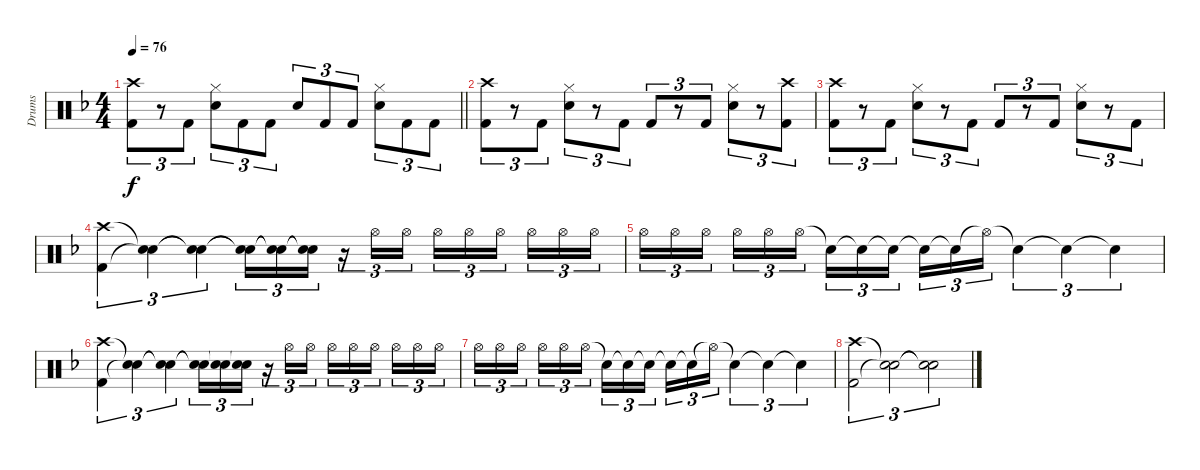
\track ("Drums" "Drums") {instrument percussion}
\staff {score}
\articulation defaults
\ts (4 4)
\tempo 76
\clef neutral
\barLineRight lightlight
\ks f
("Crash high (hit)" "Kick (hit) 2").8{tu (3 2) dy f} r.8{tu (3 2)} "Kick (hit) 2".8{tu (3 2)} ("Hi-Hat (closed)" "Electric Snare (hit)").8{tu (3 2)} "Kick (hit) 2".8{tu (3 2)} "Kick (hit) 2".8{tu (3 2)} "Electric Snare (hit)".8{tu (3 2)} "Kick (hit) 2".8{tu (3 2)} "Kick (hit) 2".8{tu (3 2)} ("Hi-Hat (closed)" "Electric Snare (hit)").8{tu (3 2)} "Kick (hit) 2".8{tu (3 2)} "Kick (hit) 2".8{tu (3 2)} |
("Crash high (hit)" "Kick (hit) 2").8{tu (3 2)} r.8{tu (3 2)} "Kick (hit) 2".8{tu (3 2)} ("Hi-Hat (closed)" "Electric Snare (hit)").8{tu (3 2)} r.8{tu (3 2)} "Kick (hit) 2".8{tu (3 2)} "Kick (hit) 2".8{tu (3 2)} r.8{tu (3 2)} "Kick (hit) 2".8{tu (3 2)} ("Hi-Hat (closed)" "Electric Snare (hit)").8{tu (3 2)} r.8{tu (3 2)} ("Crash high (hit)" "Kick (hit) 2").8{tu (3 2)} |
("Crash high (hit)" "Kick (hit) 2").8{tu (3 2)} r.8{tu (3 2)} "Kick (hit) 2".8{tu (3 2)} ("Hi-Hat (closed)" "Electric Snare (hit)").8{tu (3 2)} r.8{tu (3 2)} "Kick (hit) 2".8{tu (3 2)} "Kick (hit) 2".8{tu (3 2)} r.8{tu (3 2)} "Kick (hit) 2".8{tu (3 2)} ("Hi-Hat (closed)" "Electric Snare (hit)").8{tu (3 2)} r.8{tu (3 2)} "Kick (hit) 2".8{tu (3 2)} |
("Crash high (hit)" "Kick (hit) 2").4{tu (3 2)} ("Snare (hit)"{t} "Snare (hit)"{t}).4{tu (3 2)} ("Snare (hit)"{t} "Snare (hit)"{t}).4{tu (3 2)} ("Snare (hit)"{t} "Snare (hit)"{t}).16{tu (3 2)} ("Snare (hit)"{t} "Snare (hit)"{t}).16{tu (3 2)} ("Snare (hit)"{t} "Snare (hit)"{t}).16{tu (3 2)} r.16{tu (3 2) volume 0} "Hi-Hat (open)".16{tu (3 2) volume 6} "Hi-Hat (open)".16{tu (3 2)} "Hi-Hat (open)".16{tu (3 2)} "Hi-Hat (open)".16{tu (3 2)} "Hi-Hat (open)".16{tu (3 2) beam splitsecondary} "Hi-Hat (open)".16{tu (3 2)} "Hi-Hat (open)".16{tu (3 2)} "Hi-Hat (open)".16{tu (3 2)} |
"Hi-Hat (open)".16{tu (3 2)} "Hi-Hat (open)".16{tu (3 2)} "Hi-Hat (open)".16{tu (3 2) beam splitsecondary} "Hi-Hat (open)".16{tu (3 2)} "Hi-Hat (open)".16{tu (3 2)} "Hi-Hat (open)".16{tu (3 2)} "Snare (hit)"{t}.16{tu (3 2)} "Snare (hit)"{t}.16{tu (3 2)} "Snare (hit)"{t}.16{tu (3 2) beam splitsecondary} "Snare (hit)"{t}.16{tu (3 2)} "Snare (hit)"{t}.16{tu (3 2)} "Hi-Hat (open)"{t}.16{tu (3 2)} "Snare (hit)"{t}.4{tu (3 2)} "Snare (hit)"{t}.4{tu (3 2)} "Snare (hit)"{t}.4{tu (3 2)} |
("Crash high (hit)" "Kick (hit) 2").4{tu (3 2)} ("Snare (hit)"{t} "Snare (hit)"{t}).4{tu (3 2)} ("Snare (hit)"{t} "Snare (hit)"{t}).4{tu (3 2)} ("Snare (hit)"{t} "Snare (hit)"{t}).16{tu (3 2)} ("Snare (hit)"{t} "Snare (hit)"{t}).16{tu (3 2)} ("Snare (hit)"{t} "Snare (hit)"{t}).16{tu (3 2)} r.16{tu (3 2) volume 0} "Hi-Hat (open)".16{tu (3 2) volume 6} "Hi-Hat (open)".16{tu (3 2)} "Hi-Hat (open)".16{tu (3 2)} "Hi-Hat (open)".16{tu (3 2)} "Hi-Hat (open)".16{tu (3 2) beam splitsecondary} "Hi-Hat (open)".16{tu (3 2)} "Hi-Hat (open)".16{tu (3 2)} "Hi-Hat (open)".16{tu (3 2)} |
"Hi-Hat (open)".16{tu (3 2)} "Hi-Hat (open)".16{tu (3 2)} "Hi-Hat (open)".16{tu (3 2) beam splitsecondary} "Hi-Hat (open)".16{tu (3 2)} "Hi-Hat (open)".16{tu (3 2)} "Hi-Hat (open)".16{tu (3 2)} "Snare (hit)"{t}.16{tu (3 2)} "Snare (hit)"{t}.16{tu (3 2)} "Snare (hit)"{t}.16{tu (3 2) beam splitsecondary} "Snare (hit)"{t}.16{tu (3 2)} "Snare (hit)"{t}.16{tu (3 2)} "Hi-Hat (open)"{t}.16{tu (3 2)} "Snare (hit)"{t}.4{tu (3 2)} "Snare (hit)"{t}.4{tu (3 2)} "Snare (hit)"{t}.4{tu (3 2)} |
("Crash high (hit)" "Kick (hit) 2").2{tu (3 2)} ("Snare (hit)"{t} "Snare (hit)"{t}).2{tu (3 2)} ("Snare (hit)"{t} "Snare (hit)"{t}).2{tu (3 2)}
